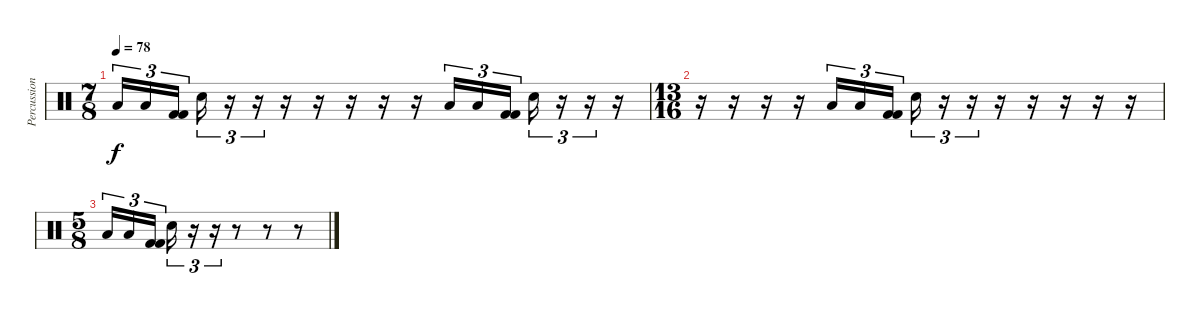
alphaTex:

\track ("Percussion" "Percussion") {instrument percussion}
\staff {score}
\articulation defaults
\ts (7 8)
\tempo 78
\clef neutral
\ks c "Low Floor Tom (hit)".16{tu (3 2) dy f} "Low Tom (hit)".16{tu (3 2)}
("Kick (hit) 2" "Kick (hit) 2").16{tu (3 2)} "Electric Snare (hit)".16{tu (3 2)} r.16{tu (3 2)} r.16{tu (3 2)} r.16 r.16 r.16 r.16 r.16 "Low Floor Tom (hit)".16{tu (3 2)} "Low Tom (hit)".16{tu (3 2)} ("Kick (hit) 2" "Kick (hit) 2").16{tu (3 2)} "Electric Snare (hit)".16{tu (3 2)} r.16{tu (3 2)} r.16{tu (3 2)} r.16 |
\ts (13 16)
r.16 r.16 r.16 r.16 "Low Floor Tom (hit)".16{tu (3 2)} "Low Tom (hit)".16{tu (3 2)} ("Kick (hit) 2" "Kick (hit) 2").16{tu (3 2)} "Electric Snare (hit)".16{tu (3 2)} r.16{tu (3 2)} r.16{tu (3 2)} r.16 r.16 r.16 r.16 r.16 |
\ts (5 8)
"Low Floor Tom (hit)".16{tu (3 2)} "Low Tom (hit)".16{tu (3 2)} ("Kick (hit) 2" "Kick (hit) 2").16{tu (3 2)} "Electric Snare (hit)".16{tu (3 2)} r.16{tu (3 2)} r.16{tu (3 2)} r.8 r.8 r.8
